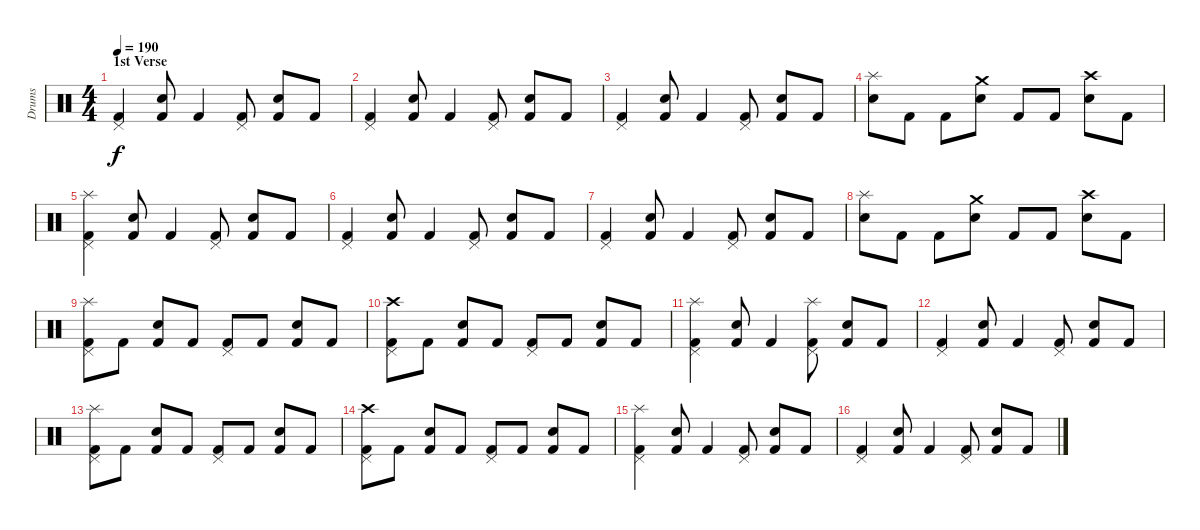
\track ("Drums" "Drums") {instrument percussion}
\staff {score}
\articulation defaults
\ts (4 4)
\section ("" "1st Verse")
\tempo 190
\clef neutral
\ks c
("Pedal Hi-Hat (hit)" "Kick (hit) 2").4{dy f} ("Electric Snare (hit)" "Kick (hit) 2").8 "Kick (hit) 2".4 ("Pedal Hi-Hat (hit)" "Kick (hit) 2").8 ("Electric Snare (hit)" "Kick (hit) 2").8 "Kick (hit) 2".8 |
("Pedal Hi-Hat (hit)" "Kick (hit) 2").4 ("Electric Snare (hit)" "Kick (hit) 2").8 "Kick (hit) 2".4 ("Pedal Hi-Hat (hit)" "Kick (hit) 2").8 ("Electric Snare (hit)" "Kick (hit) 2").8 "Kick (hit) 2".8 |
("Pedal Hi-Hat (hit)" "Kick (hit) 2").4 ("Electric Snare (hit)" "Kick (hit) 2").8 "Kick (hit) 2".4 ("Pedal Hi-Hat (hit)" "Kick (hit) 2").8 ("Electric Snare (hit)" "Kick (hit) 2").8 "Kick (hit) 2".8 |
("Splash (hit)" "Electric Snare (hit)").8 "Kick (hit) 2".8 "Kick (hit) 2".8 ("Crash medium (hit)" "Electric Snare (hit)").8 "Kick (hit) 2".8 "Kick (hit) 2".8 ("Crash high (hit)" "Electric Snare (hit)").8 "Kick (hit) 2".8 |
("Pedal Hi-Hat (hit)" "Splash (hit)" "Kick (hit) 2").4 ("Electric Snare (hit)" "Kick (hit) 2").8 "Kick (hit) 2".4 ("Pedal Hi-Hat (hit)" "Kick (hit) 2").8 ("Electric Snare (hit)" "Kick (hit) 2").8 "Kick (hit) 2".8 |
("Pedal Hi-Hat (hit)" "Kick (hit) 2").4 ("Electric Snare (hit)" "Kick (hit) 2").8 "Kick (hit) 2".4 ("Pedal Hi-Hat (hit)" "Kick (hit) 2").8 ("Electric Snare (hit)" "Kick (hit) 2").8 "Kick (hit) 2".8 |
("Pedal Hi-Hat (hit)" "Kick (hit) 2").4 ("Electric Snare (hit)" "Kick (hit) 2").8 "Kick (hit) 2".4 ("Pedal Hi-Hat (hit)" "Kick (hit) 2").8 ("Electric Snare (hit)" "Kick (hit) 2").8 "Kick (hit) 2".8 |
("Splash (hit)" "Electric Snare (hit)").8 "Kick (hit) 2".8 "Kick (hit) 2".8 ("Crash medium (hit)" "Electric Snare (hit)").8 "Kick (hit) 2".8 "Kick (hit) 2".8 ("Crash high (hit)" "Electric Snare (hit)").8 "Kick (hit) 2".8 |
("Splash (hit)" "Pedal Hi-Hat (hit)" "Kick (hit) 2").8 "Kick (hit) 2".8 ("Electric Snare (hit)" "Kick (hit) 2").8 "Kick (hit) 2".8 ("Pedal Hi-Hat (hit)" "Kick (hit) 2").8 "Kick (hit) 2".8 ("Electric Snare (hit)" "Kick (hit) 2").8 "Kick (hit) 2".8 |
("Crash high (hit)" "Pedal Hi-Hat (hit)" "Kick (hit) 2").8 "Kick (hit) 2".8 ("Electric Snare (hit)" "Kick (hit) 2").8 "Kick (hit) 2".8 ("Pedal Hi-Hat (hit)" "Kick (hit) 2").8 "Kick (hit) 2".8 ("Electric Snare (hit)" "Kick (hit) 2").8 "Kick (hit) 2".8 |
("Pedal Hi-Hat (hit)" "Splash (hit)" "Kick (hit) 2").4 ("Electric Snare (hit)" "Kick (hit) 2").8 "Kick (hit) 2".4 ("Pedal Hi-Hat (hit)" "Splash (hit)" "Kick (hit) 2").8 ("Electric Snare (hit)" "Kick (hit) 2").8 "Kick (hit) 2".8 |
("Pedal Hi-Hat (hit)" "Kick (hit) 2").4 ("Electric Snare (hit)" "Kick (hit) 2").8 "Kick (hit) 2".4 ("Pedal Hi-Hat (hit)" "Kick (hit) 2").8 ("Electric Snare (hit)" "Kick (hit) 2").8 "Kick (hit) 2".8 |
("Splash (hit)" "Pedal Hi-Hat (hit)" "Kick (hit) 2").8 "Kick (hit) 2".8 ("Electric Snare (hit)" "Kick (hit) 2").8 "Kick (hit) 2".8 ("Pedal Hi-Hat (hit)" "Kick (hit) 2").8 "Kick (hit) 2".8 ("Electric Snare (hit)" "Kick (hit) 2").8 "Kick (hit) 2".8 |
("Crash high (hit)" "Pedal Hi-Hat (hit)" "Kick (hit) 2").8 "Kick (hit) 2".8 ("Electric Snare (hit)" "Kick (hit) 2").8 "Kick (hit) 2".8 ("Pedal Hi-Hat (hit)" "Kick (hit) 2").8 "Kick (hit) 2".8 ("Electric Snare (hit)" "Kick (hit) 2").8 "Kick (hit) 2".8 |
("Pedal Hi-Hat (hit)" "Splash (hit)" "Kick (hit) 2").4 ("Electric Snare (hit)" "Kick (hit) 2").8 "Kick (hit) 2".4 ("Pedal Hi-Hat (hit)" "Kick (hit) 2").8 ("Electric Snare (hit)" "Kick (hit) 2").8 "Kick (hit) 2".8 |
("Pedal Hi-Hat (hit)" "Kick (hit) 2").4 ("Electric Snare (hit)" "Kick (hit) 2").8 "Kick (hit) 2".4 ("Pedal Hi-Hat (hit)" "Kick (hit) 2").8 ("Electric Snare (hit)" "Kick (hit) 2").8 "Kick (hit) 2".8
